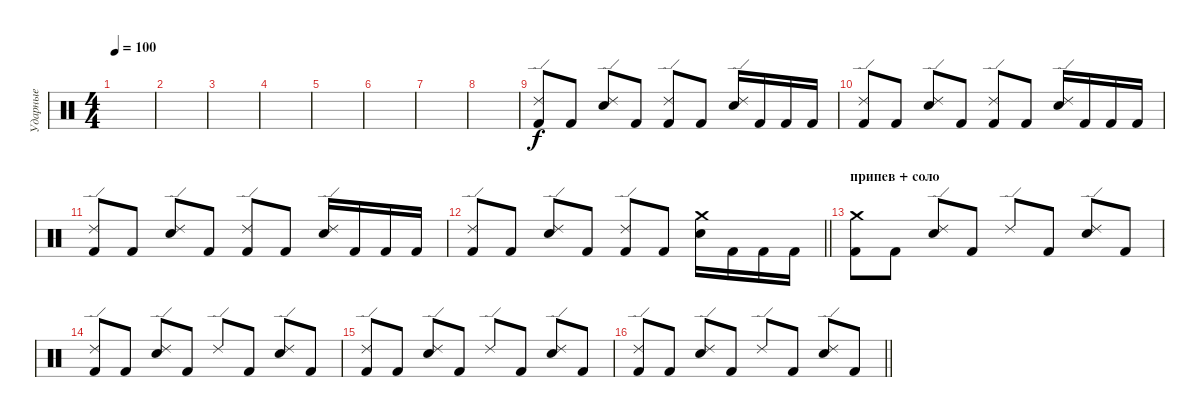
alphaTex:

\track ("Ударные" "Ударные") {instrument percussion}
\staff {score}
\articulation defaults
\ts (4 4)
\tempo 100
\clef neutral
\ks c
|
|
|
|
|
|
|
|
("Kick (hit) 2" "Ride (edge) 2").8 "Kick (hit) 2".8 ("Electric Snare (hit)" "Ride (edge) 2").8 "Kick (hit) 2".8 ("Kick (hit) 2" "Ride (edge) 2").8 "Kick (hit) 2".8 ("Electric Snare (hit)" "Ride (edge) 2").16 "Kick (hit) 2".16 "Kick (hit) 2".16 "Kick (hit) 2".16 |
("Kick (hit) 2" "Ride (edge) 2").8 "Kick (hit) 2".8 ("Electric Snare (hit)" "Ride (edge) 2").8 "Kick (hit) 2".8 ("Kick (hit) 2" "Ride (edge) 2").8 "Kick (hit) 2".8 ("Electric Snare (hit)" "Ride (edge) 2").16 "Kick (hit) 2".16 "Kick (hit) 2".16 "Kick (hit) 2".16 |
("Kick (hit) 2" "Ride (edge) 2").8 "Kick (hit) 2".8 ("Electric Snare (hit)" "Ride (edge) 2").8 "Kick (hit) 2".8 ("Kick (hit) 2" "Ride (edge) 2").8 "Kick (hit) 2".8 ("Electric Snare (hit)" "Ride (edge) 2").16 "Kick (hit) 2".16 "Kick (hit) 2".16 "Kick (hit) 2".16 |
\barLineRight lightlight
("Kick (hit) 2" "Ride (edge) 2").8 "Kick (hit) 2".8 ("Electric Snare (hit)" "Ride (edge) 2").8 "Kick (hit) 2".8 ("Kick (hit) 2" "Ride (edge) 2").8 "Kick (hit) 2".8 ("Electric Snare (hit)" "Crash medium (hit)").16 "Kick (hit) 2".16 "Kick (hit) 2".16 "Kick (hit) 2".16 |
\section ("" "припев + соло")
("Kick (hit) 2" "Crash medium (hit)").8 "Kick (hit) 2".8 ("Electric Snare (hit)" "Ride (edge) 2").8 "Kick (hit) 2".8 "Ride (edge) 2".8 "Kick (hit) 2".8 ("Electric Snare (hit)" "Ride (edge) 2").8 "Kick (hit) 2".8 |
("Kick (hit) 2" "Ride (edge) 2").8 "Kick (hit) 2".8 ("Electric Snare (hit)" "Ride (edge) 2").8 "Kick (hit) 2".8 "Ride (edge) 2".8 "Kick (hit) 2".8 ("Electric Snare (hit)" "Ride (edge) 2").8 "Kick (hit) 2".8 |
("Kick (hit) 2" "Ride (edge) 2").8 "Kick (hit) 2".8 ("Electric Snare (hit)" "Ride (edge) 2").8 "Kick (hit) 2".8 "Ride (edge) 2".8 "Kick (hit) 2".8 ("Electric Snare (hit)" "Ride (edge) 2").8 "Kick (hit) 2".8 |
\barLineRight lightlight
("Kick (hit) 2" "Ride (edge) 2").8 "Kick (hit) 2".8 ("Electric Snare (hit)" "Ride (edge) 2").8 "Kick (hit) 2".8 "Ride (edge) 2".8 "Kick (hit) 2".8 ("Electric Snare (hit)" "Ride (edge) 2").8 "Kick (hit) 2".8
